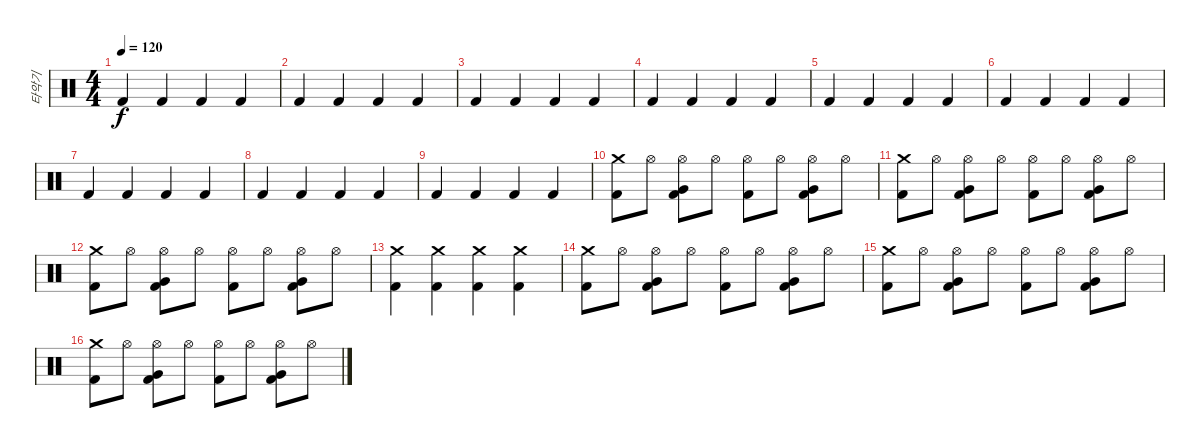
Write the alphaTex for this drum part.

\track ("타악기" "타악기") {instrument percussion}
\staff {score}
\articulation defaults
\ts (4 4)
\tempo 120
\clef neutral
\ks c "Kick (hit) 2".4{dy f} "Kick (hit) 2".4 "Kick (hit) 2".4 "Kick (hit) 2".4
|
"Kick (hit) 2".4 "Kick (hit) 2".4 "Kick (hit) 2".4 "Kick (hit) 2".4 |
"Kick (hit) 2".4 "Kick (hit) 2".4 "Kick (hit) 2".4 "Kick (hit) 2".4 |
"Kick (hit) 2".4 "Kick (hit) 2".4 "Kick (hit) 2".4 "Kick (hit) 2".4 |
"Kick (hit) 2".4 "Kick (hit) 2".4 "Kick (hit) 2".4 "Kick (hit) 2".4 |
"Kick (hit) 2".4 "Kick (hit) 2".4 "Kick (hit) 2".4 "Kick (hit) 2".4 |
"Kick (hit) 2".4 "Kick (hit) 2".4 "Kick (hit) 2".4 "Kick (hit) 2".4 |
"Kick (hit) 2".4 "Kick (hit) 2".4 "Kick (hit) 2".4 "Kick (hit) 2".4 |
"Kick (hit) 2".4 "Kick (hit) 2".4 "Kick (hit) 2".4 "Kick (hit) 2".4 |
("Kick (hit) 2" "Crash medium (hit)").8 "Hi-Hat (open)".8 ("Kick (hit) 2" "Very Low Tom (hit)" "Hi-Hat (open)").8 "Hi-Hat (open)".8 ("Kick (hit) 2" "Hi-Hat (open)").8 "Hi-Hat (open)".8 ("Kick (hit) 2" "Very Low Tom (hit)" "Hi-Hat (open)").8 "Hi-Hat (open)".8 |
("Kick (hit) 2" "Crash medium (hit)").8 "Hi-Hat (open)".8 ("Kick (hit) 2" "Very Low Tom (hit)" "Hi-Hat (open)").8 "Hi-Hat (open)".8 ("Kick (hit) 2" "Hi-Hat (open)").8 "Hi-Hat (open)".8 ("Kick (hit) 2" "Very Low Tom (hit)" "Hi-Hat (open)").8 "Hi-Hat (open)".8 |
("Kick (hit) 2" "Crash medium (hit)").8 "Hi-Hat (open)".8 ("Kick (hit) 2" "Very Low Tom (hit)" "Hi-Hat (open)").8 "Hi-Hat (open)".8 ("Kick (hit) 2" "Hi-Hat (open)").8 "Hi-Hat (open)".8 ("Kick (hit) 2" "Very Low Tom (hit)" "Hi-Hat (open)").8 "Hi-Hat (open)".8 |
("Kick (hit) 2" "Crash medium (hit)").4 ("Kick (hit) 2" "Crash medium (hit)").4 ("Kick (hit) 2" "Crash medium (hit)").4 ("Kick (hit) 2" "Crash medium (hit)").4 |
("Kick (hit) 2" "Crash medium (hit)").8 "Hi-Hat (open)".8 ("Kick (hit) 2" "Very Low Tom (hit)" "Hi-Hat (open)").8 "Hi-Hat (open)".8 ("Kick (hit) 2" "Hi-Hat (open)").8 "Hi-Hat (open)".8 ("Kick (hit) 2" "Very Low Tom (hit)" "Hi-Hat (open)").8 "Hi-Hat (open)".8 |
("Kick (hit) 2" "Crash medium (hit)").8 "Hi-Hat (open)".8 ("Kick (hit) 2" "Very Low Tom (hit)" "Hi-Hat (open)").8 "Hi-Hat (open)".8 ("Kick (hit) 2" "Hi-Hat (open)").8 "Hi-Hat (open)".8 ("Kick (hit) 2" "Very Low Tom (hit)" "Hi-Hat (open)").8 "Hi-Hat (open)".8 |
("Kick (hit) 2" "Crash medium (hit)").8 "Hi-Hat (open)".8 ("Kick (hit) 2" "Very Low Tom (hit)" "Hi-Hat (open)").8 "Hi-Hat (open)".8 ("Kick (hit) 2" "Hi-Hat (open)").8 "Hi-Hat (open)".8 ("Kick (hit) 2" "Very Low Tom (hit)" "Hi-Hat (open)").8 "Hi-Hat (open)".8
